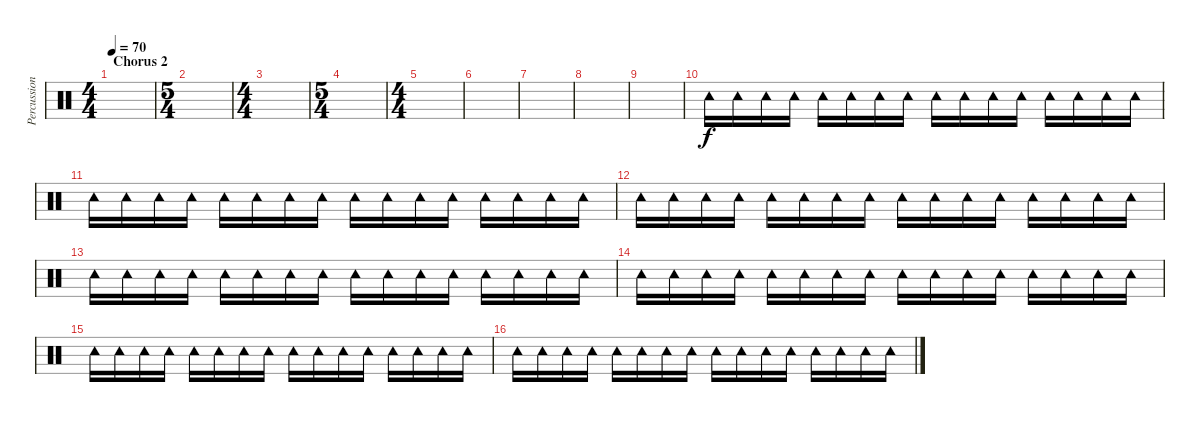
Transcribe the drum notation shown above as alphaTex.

\track ("Percussion" "Percussion") {instrument percussion}
\staff {score}
\articulation defaults
\ts (4 4)
\section ("" "Chorus 2")
\tempo 70
\clef neutral
\ks c
|
\ts (5 4)
|
\ts (4 4)
|
\ts (5 4)
|
\ts (4 4)
|
|
|
|
|
"Tambourine (hit)".16{dy f} "Tambourine (hit)".16 "Tambourine (hit)".16 "Tambourine (hit)".16 "Tambourine (hit)".16 "Tambourine (hit)".16 "Tambourine (hit)".16 "Tambourine (hit)".16 "Tambourine (hit)".16 "Tambourine (hit)".16 "Tambourine (hit)".16 "Tambourine (hit)".16 "Tambourine (hit)".16 "Tambourine (hit)".16 "Tambourine (hit)".16 "Tambourine (hit)".16 |
"Tambourine (hit)".16 "Tambourine (hit)".16 "Tambourine (hit)".16 "Tambourine (hit)".16 "Tambourine (hit)".16 "Tambourine (hit)".16 "Tambourine (hit)".16 "Tambourine (hit)".16 "Tambourine (hit)".16 "Tambourine (hit)".16 "Tambourine (hit)".16 "Tambourine (hit)".16 "Tambourine (hit)".16 "Tambourine (hit)".16 "Tambourine (hit)".16 "Tambourine (hit)".16 |
"Tambourine (hit)".16 "Tambourine (hit)".16 "Tambourine (hit)".16 "Tambourine (hit)".16 "Tambourine (hit)".16 "Tambourine (hit)".16 "Tambourine (hit)".16 "Tambourine (hit)".16 "Tambourine (hit)".16 "Tambourine (hit)".16 "Tambourine (hit)".16 "Tambourine (hit)".16 "Tambourine (hit)".16 "Tambourine (hit)".16 "Tambourine (hit)".16 "Tambourine (hit)".16 |
"Tambourine (hit)".16 "Tambourine (hit)".16 "Tambourine (hit)".16 "Tambourine (hit)".16 "Tambourine (hit)".16 "Tambourine (hit)".16 "Tambourine (hit)".16 "Tambourine (hit)".16 "Tambourine (hit)".16 "Tambourine (hit)".16 "Tambourine (hit)".16 "Tambourine (hit)".16 "Tambourine (hit)".16 "Tambourine (hit)".16 "Tambourine (hit)".16 "Tambourine (hit)".16 |
"Tambourine (hit)".16 "Tambourine (hit)".16 "Tambourine (hit)".16 "Tambourine (hit)".16 "Tambourine (hit)".16 "Tambourine (hit)".16 "Tambourine (hit)".16 "Tambourine (hit)".16 "Tambourine (hit)".16 "Tambourine (hit)".16 "Tambourine (hit)".16 "Tambourine (hit)".16 "Tambourine (hit)".16 "Tambourine (hit)".16 "Tambourine (hit)".16 "Tambourine (hit)".16 |
"Tambourine (hit)".16 "Tambourine (hit)".16 "Tambourine (hit)".16 "Tambourine (hit)".16 "Tambourine (hit)".16 "Tambourine (hit)".16 "Tambourine (hit)".16 "Tambourine (hit)".16 "Tambourine (hit)".16 "Tambourine (hit)".16 "Tambourine (hit)".16 "Tambourine (hit)".16 "Tambourine (hit)".16 "Tambourine (hit)".16 "Tambourine (hit)".16 "Tambourine (hit)".16 |
"Tambourine (hit)".16 "Tambourine (hit)".16 "Tambourine (hit)".16 "Tambourine (hit)".16 "Tambourine (hit)".16 "Tambourine (hit)".16 "Tambourine (hit)".16 "Tambourine (hit)".16 "Tambourine (hit)".16 "Tambourine (hit)".16 "Tambourine (hit)".16 "Tambourine (hit)".16 "Tambourine (hit)".16 "Tambourine (hit)".16 "Tambourine (hit)".16 "Tambourine (hit)".16
